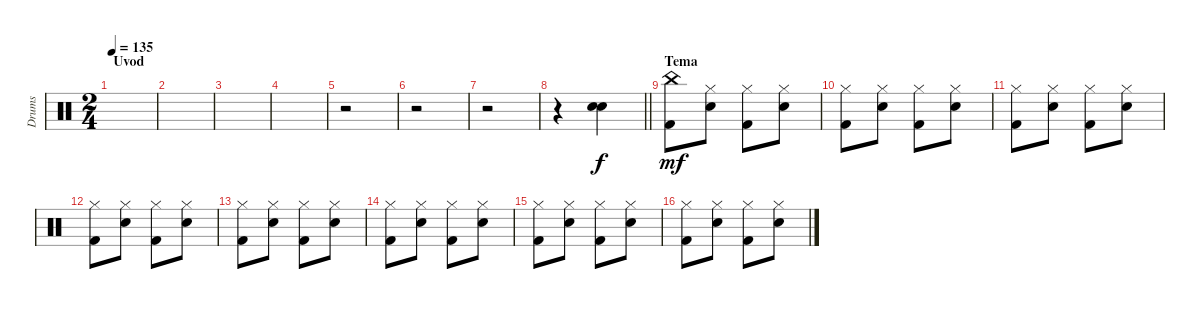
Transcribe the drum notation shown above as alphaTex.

\track ("Drums" "Drums") {instrument percussion}
\staff {score}
\articulation defaults
\ts (2 4)
\section ("" "Uvod")
\tempo 135
\clef neutral
\ks c
|
|
|
|
r.2 |
r.2 |
r.2 |
\barLineRight lightlight
r.4 ("Electric Snare (hit)" "Electric Snare (hit)").4 |
\section ("" "Tema")
("China (hit)" "Kick (hit) 2").8{dy mf} ("Hi-Hat (closed)" "Electric Snare (hit)").8 ("Hi-Hat (closed)" "Kick (hit) 2").8 ("Hi-Hat (closed)" "Electric Snare (hit)").8 |
("Hi-Hat (closed)" "Kick (hit) 2").8 ("Hi-Hat (closed)" "Electric Snare (hit)").8 ("Hi-Hat (closed)" "Kick (hit) 2").8 ("Hi-Hat (closed)" "Electric Snare (hit)").8 |
("Hi-Hat (closed)" "Kick (hit) 2").8 ("Hi-Hat (closed)" "Electric Snare (hit)").8 ("Hi-Hat (closed)" "Kick (hit) 2").8 ("Hi-Hat (closed)" "Electric Snare (hit)").8 |
("Hi-Hat (closed)" "Kick (hit) 2").8 ("Hi-Hat (closed)" "Electric Snare (hit)").8 ("Hi-Hat (closed)" "Kick (hit) 2").8 ("Hi-Hat (closed)" "Electric Snare (hit)").8 |
("Hi-Hat (closed)" "Kick (hit) 2").8 ("Hi-Hat (closed)" "Electric Snare (hit)").8 ("Hi-Hat (closed)" "Kick (hit) 2").8 ("Hi-Hat (closed)" "Electric Snare (hit)").8 |
("Hi-Hat (closed)" "Kick (hit) 2").8 ("Hi-Hat (closed)" "Electric Snare (hit)").8 ("Hi-Hat (closed)" "Kick (hit) 2").8 ("Hi-Hat (closed)" "Electric Snare (hit)").8 |
("Hi-Hat (closed)" "Kick (hit) 2").8 ("Hi-Hat (closed)" "Electric Snare (hit)").8 ("Hi-Hat (closed)" "Kick (hit) 2").8 ("Hi-Hat (closed)" "Electric Snare (hit)").8 |
("Hi-Hat (closed)" "Kick (hit) 2").8 ("Hi-Hat (closed)" "Electric Snare (hit)").8 ("Hi-Hat (closed)" "Kick (hit) 2").8 ("Hi-Hat (closed)" "Electric Snare (hit)").8
